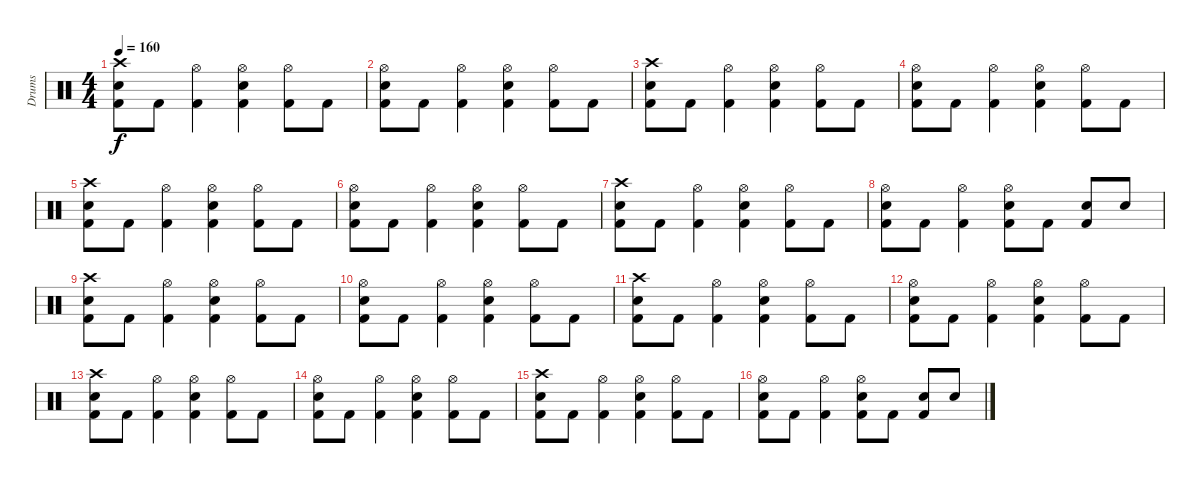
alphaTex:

\track ("Drums" "Drums") {instrument percussion}
\staff {score}
\articulation defaults
\ts (4 4)
\tempo 160
\clef neutral
\ks c
("Crash high (hit)" "Snare (hit) 2" "Kick (hit) 2").8{dy f} "Kick (hit) 2".8 ("Hi-Hat (open)" "Kick (hit) 2").4 ("Hi-Hat (open)" "Snare (hit) 2" "Kick (hit) 2").4 ("Hi-Hat (open)" "Kick (hit) 2").8 "Kick (hit) 2".8 |
("Hi-Hat (open)" "Snare (hit) 2" "Kick (hit) 2").8 "Kick (hit) 2".8 ("Hi-Hat (open)" "Kick (hit) 2").4 ("Hi-Hat (open)" "Snare (hit) 2" "Kick (hit) 2").4 ("Hi-Hat (open)" "Kick (hit) 2").8 "Kick (hit) 2".8 |
("Crash high (hit)" "Snare (hit) 2" "Kick (hit) 2").8 "Kick (hit) 2".8 ("Hi-Hat (open)" "Kick (hit) 2").4 ("Hi-Hat (open)" "Snare (hit) 2" "Kick (hit) 2").4 ("Hi-Hat (open)" "Kick (hit) 2").8 "Kick (hit) 2".8 |
("Hi-Hat (open)" "Snare (hit) 2" "Kick (hit) 2").8 "Kick (hit) 2".8 ("Hi-Hat (open)" "Kick (hit) 2").4 ("Hi-Hat (open)" "Snare (hit) 2" "Kick (hit) 2").4 ("Hi-Hat (open)" "Kick (hit) 2").8 "Kick (hit) 2".8 |
("Crash high (hit)" "Snare (hit) 2" "Kick (hit) 2").8 "Kick (hit) 2".8 ("Hi-Hat (open)" "Kick (hit) 2").4 ("Hi-Hat (open)" "Snare (hit) 2" "Kick (hit) 2").4 ("Hi-Hat (open)" "Kick (hit) 2").8 "Kick (hit) 2".8 |
("Hi-Hat (open)" "Snare (hit) 2" "Kick (hit) 2").8 "Kick (hit) 2".8 ("Hi-Hat (open)" "Kick (hit) 2").4 ("Hi-Hat (open)" "Snare (hit) 2" "Kick (hit) 2").4 ("Hi-Hat (open)" "Kick (hit) 2").8 "Kick (hit) 2".8 |
("Crash high (hit)" "Snare (hit) 2" "Kick (hit) 2").8 "Kick (hit) 2".8 ("Hi-Hat (open)" "Kick (hit) 2").4 ("Hi-Hat (open)" "Snare (hit) 2" "Kick (hit) 2").4 ("Hi-Hat (open)" "Kick (hit) 2").8 "Kick (hit) 2".8 |
("Hi-Hat (open)" "Snare (hit) 2" "Kick (hit) 2").8 "Kick (hit) 2".8 ("Hi-Hat (open)" "Kick (hit) 2").4 ("Hi-Hat (open)" "Snare (hit) 2" "Kick (hit) 2").8 "Kick (hit) 2".8 ("Snare (hit) 2" "Kick (hit) 2").8 "Snare (hit) 2".8 |
("Crash high (hit)" "Snare (hit) 2" "Kick (hit) 2").8 "Kick (hit) 2".8 ("Hi-Hat (open)" "Kick (hit) 2").4 ("Hi-Hat (open)" "Snare (hit) 2" "Kick (hit) 2").4 ("Hi-Hat (open)" "Kick (hit) 2").8 "Kick (hit) 2".8 |
("Hi-Hat (open)" "Snare (hit) 2" "Kick (hit) 2").8 "Kick (hit) 2".8 ("Hi-Hat (open)" "Kick (hit) 2").4 ("Hi-Hat (open)" "Snare (hit) 2" "Kick (hit) 2").4 ("Hi-Hat (open)" "Kick (hit) 2").8 "Kick (hit) 2".8 |
("Crash high (hit)" "Snare (hit) 2" "Kick (hit) 2").8 "Kick (hit) 2".8 ("Hi-Hat (open)" "Kick (hit) 2").4 ("Hi-Hat (open)" "Snare (hit) 2" "Kick (hit) 2").4 ("Hi-Hat (open)" "Kick (hit) 2").8 "Kick (hit) 2".8 |
("Hi-Hat (open)" "Snare (hit) 2" "Kick (hit) 2").8 "Kick (hit) 2".8 ("Hi-Hat (open)" "Kick (hit) 2").4 ("Hi-Hat (open)" "Snare (hit) 2" "Kick (hit) 2").4 ("Hi-Hat (open)" "Kick (hit) 2").8 "Kick (hit) 2".8 |
("Crash high (hit)" "Snare (hit) 2" "Kick (hit) 2").8 "Kick (hit) 2".8 ("Hi-Hat (open)" "Kick (hit) 2").4 ("Hi-Hat (open)" "Snare (hit) 2" "Kick (hit) 2").4 ("Hi-Hat (open)" "Kick (hit) 2").8 "Kick (hit) 2".8 |
("Hi-Hat (open)" "Snare (hit) 2" "Kick (hit) 2").8 "Kick (hit) 2".8 ("Hi-Hat (open)" "Kick (hit) 2").4 ("Hi-Hat (open)" "Snare (hit) 2" "Kick (hit) 2").4 ("Hi-Hat (open)" "Kick (hit) 2").8 "Kick (hit) 2".8 |
("Crash high (hit)" "Snare (hit) 2" "Kick (hit) 2").8 "Kick (hit) 2".8 ("Hi-Hat (open)" "Kick (hit) 2").4 ("Hi-Hat (open)" "Snare (hit) 2" "Kick (hit) 2").4 ("Hi-Hat (open)" "Kick (hit) 2").8 "Kick (hit) 2".8 |
("Hi-Hat (open)" "Snare (hit) 2" "Kick (hit) 2").8 "Kick (hit) 2".8 ("Hi-Hat (open)" "Kick (hit) 2").4 ("Hi-Hat (open)" "Snare (hit) 2" "Kick (hit) 2").8 "Kick (hit) 2".8 ("Snare (hit) 2" "Kick (hit) 2").8 "Snare (hit) 2".8
